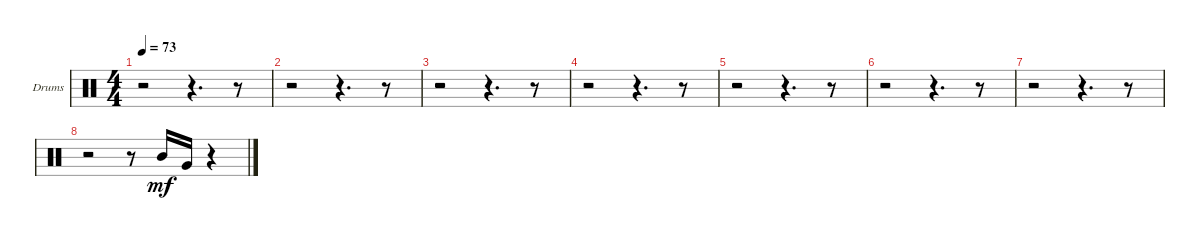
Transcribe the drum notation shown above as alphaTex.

\bracketExtendMode groupsimilarinstruments
\firstSystemTrackNameOrientation horizontal
\otherSystemsTrackNameOrientation horizontal
\track ("toms" "Drums") {instrument percussion}
\staff {score}
\articulation defaults
\ts (4 4)
\tempo 73
\clef neutral
\ks c
r.2{dy mf} r.4{d} r.8 |
r.2 r.4{d} r.8 |
r.2 r.4{d} r.8 |
r.2 r.4{d} r.8 |
r.2 r.4{d} r.8 |
r.2 r.4{d} r.8 |
r.2 r.4{d} r.8 |
r.2 r.8 "Mid Tom (hit)".16 "Very Low Tom (hit)".16 r.4
